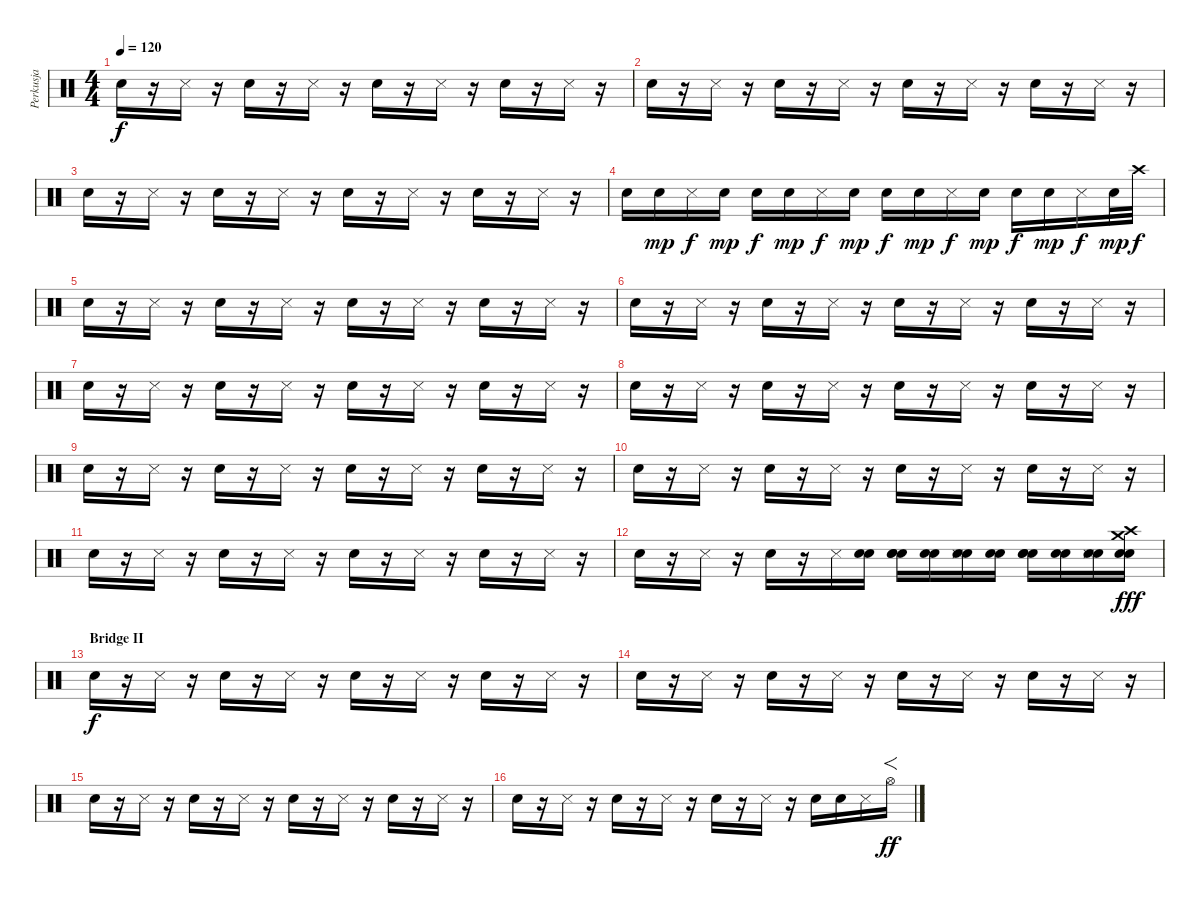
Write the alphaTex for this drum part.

\track ("Perkusja" "Perkusja") {instrument percussion}
\staff {score}
\articulation defaults
\ts (4 4)
\tempo 120
\clef neutral
\ks c "Snare (hit) 2".16{dy f}
r.16 "Snare (side stick) 3".16 r.16 "Snare (hit) 2".16 r.16 "Snare (side stick) 3".16 r.16 "Snare (hit) 2".16 r.16 "Snare (side stick) 3".16 r.16 "Snare (hit) 2".16 r.16 "Snare (side stick) 3".16 r.16 |
"Snare (hit) 2".16 r.16 "Snare (side stick) 3".16 r.16 "Snare (hit) 2".16 r.16 "Snare (side stick) 3".16 r.16 "Snare (hit) 2".16 r.16 "Snare (side stick) 3".16 r.16 "Snare (hit) 2".16 r.16 "Snare (side stick) 3".16 r.16 |
"Snare (hit) 2".16 r.16 "Snare (side stick) 3".16 r.16 "Snare (hit) 2".16 r.16 "Snare (side stick) 3".16 r.16 "Snare (hit) 2".16 r.16 "Snare (side stick) 3".16 r.16 "Snare (hit) 2".16 r.16 "Snare (side stick) 3".16 r.16 |
"Snare (hit) 2".16 "Snare (hit) 2".16{dy mp} "Snare (side stick) 3".16{dy f} "Snare (hit) 2".16{dy mp} "Snare (hit) 2".16{dy f} "Snare (hit) 2".16{dy mp} "Snare (side stick) 3".16{dy f} "Snare (hit) 2".16{dy mp} "Snare (hit) 2".16{dy f} "Snare (hit) 2".16{dy mp} "Snare (side stick) 3".16{dy f} "Snare (hit) 2".16{dy mp} "Snare (hit) 2".16{dy f} "Snare (hit) 2".16{dy mp} "Snare (side stick) 3".16{dy f} "Snare (hit) 2".32{dy mp} "Crash high (hit)".32{dy f} |
"Snare (hit) 2".16 r.16 "Snare (side stick) 3".16 r.16 "Snare (hit) 2".16 r.16 "Snare (side stick) 3".16 r.16 "Snare (hit) 2".16 r.16 "Snare (side stick) 3".16 r.16 "Snare (hit) 2".16 r.16 "Snare (side stick) 3".16 r.16 |
"Snare (hit) 2".16 r.16 "Snare (side stick) 3".16 r.16 "Snare (hit) 2".16 r.16 "Snare (side stick) 3".16 r.16 "Snare (hit) 2".16 r.16 "Snare (side stick) 3".16 r.16 "Snare (hit) 2".16 r.16 "Snare (side stick) 3".16 r.16 |
"Snare (hit) 2".16 r.16 "Snare (side stick) 3".16 r.16 "Snare (hit) 2".16 r.16 "Snare (side stick) 3".16 r.16 "Snare (hit) 2".16 r.16 "Snare (side stick) 3".16 r.16 "Snare (hit) 2".16 r.16 "Snare (side stick) 3".16 r.16 |
"Snare (hit) 2".16 r.16 "Snare (side stick) 3".16 r.16 "Snare (hit) 2".16 r.16 "Snare (side stick) 3".16 r.16 "Snare (hit) 2".16 r.16 "Snare (side stick) 3".16 r.16 "Snare (hit) 2".16 r.16 "Snare (side stick) 3".16 r.16 |
"Snare (hit) 2".16 r.16 "Snare (side stick) 3".16 r.16 "Snare (hit) 2".16 r.16 "Snare (side stick) 3".16 r.16 "Snare (hit) 2".16 r.16 "Snare (side stick) 3".16 r.16 "Snare (hit) 2".16 r.16 "Snare (side stick) 3".16 r.16 |
"Snare (hit) 2".16 r.16 "Snare (side stick) 3".16 r.16 "Snare (hit) 2".16 r.16 "Snare (side stick) 3".16 r.16 "Snare (hit) 2".16 r.16 "Snare (side stick) 3".16 r.16 "Snare (hit) 2".16 r.16 "Snare (side stick) 3".16 r.16 |
"Snare (hit) 2".16 r.16 "Snare (side stick) 3".16 r.16 "Snare (hit) 2".16 r.16 "Snare (side stick) 3".16 r.16 "Snare (hit) 2".16 r.16 "Snare (side stick) 3".16 r.16 "Snare (hit) 2".16 r.16 "Snare (side stick) 3".16 r.16 |
"Snare (hit) 2".16 r.16 "Snare (side stick) 3".16 r.16 "Snare (hit) 2".16 r.16 "Snare (side stick) 3".16 ("Snare (hit) 2" "Electric Snare (hit)").16 ("Snare (hit) 2" "Snare (hit) 2" "Electric Snare (hit)").16 ("Snare (hit) 2" "Electric Snare (hit)").16 ("Snare (hit) 2" "Snare (side stick) 3" "Electric Snare (hit)").16 ("Snare (hit) 2" "Electric Snare (hit)").16 ("Snare (hit) 2" "Snare (hit) 2" "Electric Snare (hit)").16 ("Snare (hit) 2" "Electric Snare (hit)").16 ("Snare (hit) 2" "Snare (side stick) 3" "Electric Snare (hit)").16 ("Snare (hit) 2" "Electric Snare (hit)" "Crash high (hit)" "Crash medium (hit)").16{dy fff} |
\section ("" "Bridge II")
"Snare (hit) 2".16{dy f} r.16 "Snare (side stick) 3".16 r.16 "Snare (hit) 2".16 r.16 "Snare (side stick) 3".16 r.16 "Snare (hit) 2".16 r.16 "Snare (side stick) 3".16 r.16 "Snare (hit) 2".16 r.16 "Snare (side stick) 3".16 r.16 |
"Snare (hit) 2".16 r.16 "Snare (side stick) 3".16 r.16 "Snare (hit) 2".16 r.16 "Snare (side stick) 3".16 r.16 "Snare (hit) 2".16 r.16 "Snare (side stick) 3".16 r.16 "Snare (hit) 2".16 r.16 "Snare (side stick) 3".16 r.16 |
"Snare (hit) 2".16 r.16 "Snare (side stick) 3".16 r.16 "Snare (hit) 2".16 r.16 "Snare (side stick) 3".16 r.16 "Snare (hit) 2".16 r.16 "Snare (side stick) 3".16 r.16 "Snare (hit) 2".16 r.16 "Snare (side stick) 3".16 r.16 |
"Snare (hit) 2".16 r.16 "Snare (side stick) 3".16 r.16 "Snare (hit) 2".16 r.16 "Snare (side stick) 3".16 r.16 "Snare (hit) 2".16 r.16 "Snare (side stick) 3".16 r.16 "Snare (hit) 2".16 "Electric Snare (hit)".16 "Snare (side stick) 3".16 "Hi-Hat (open)".16{f dy ff}
